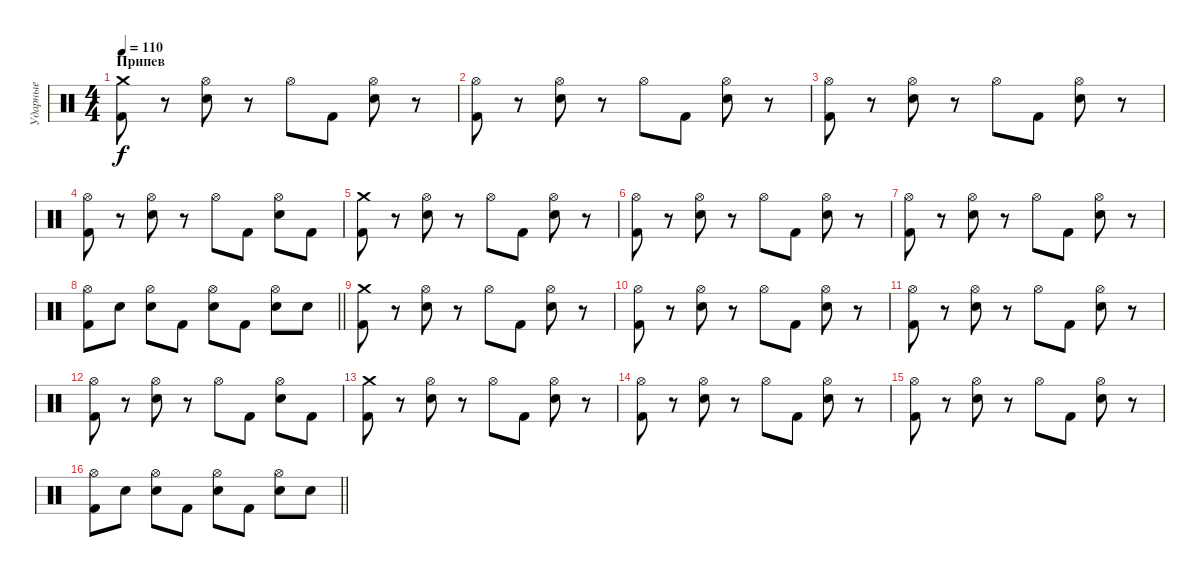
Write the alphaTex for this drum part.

\track ("Ударные" "Ударные") {instrument percussion}
\staff {score}
\articulation defaults
\ts (4 4)
\section ("" "Припев")
\tempo 110
\clef neutral
\ks c
("Crash medium (hit)" "Kick (hit) 2").8{dy f} r.8 ("Hi-Hat (open)" "Snare (hit) 2").8 r.8 "Hi-Hat (open)".8 "Kick (hit) 2".8 ("Hi-Hat (open)" "Snare (hit) 2").8 r.8 |
("Hi-Hat (open)" "Kick (hit) 2").8 r.8 ("Hi-Hat (open)" "Snare (hit) 2").8 r.8 "Hi-Hat (open)".8 "Kick (hit) 2".8 ("Hi-Hat (open)" "Snare (hit) 2").8 r.8 |
("Hi-Hat (open)" "Kick (hit) 2").8 r.8 ("Hi-Hat (open)" "Snare (hit) 2").8 r.8 "Hi-Hat (open)".8 "Kick (hit) 2".8 ("Hi-Hat (open)" "Snare (hit) 2").8 r.8 |
("Hi-Hat (open)" "Kick (hit) 2").8 r.8 ("Hi-Hat (open)" "Snare (hit) 2").8 r.8 "Hi-Hat (open)".8 "Kick (hit) 2".8 ("Hi-Hat (open)" "Snare (hit) 2").8 "Kick (hit) 2".8 |
("Crash medium (hit)" "Kick (hit) 2").8 r.8 ("Hi-Hat (open)" "Snare (hit) 2").8 r.8 "Hi-Hat (open)".8 "Kick (hit) 2".8 ("Hi-Hat (open)" "Snare (hit) 2").8 r.8 |
("Hi-Hat (open)" "Kick (hit) 2").8 r.8 ("Hi-Hat (open)" "Snare (hit) 2").8 r.8 "Hi-Hat (open)".8 "Kick (hit) 2".8 ("Hi-Hat (open)" "Snare (hit) 2").8 r.8 |
("Hi-Hat (open)" "Kick (hit) 2").8 r.8 ("Hi-Hat (open)" "Snare (hit) 2").8 r.8 "Hi-Hat (open)".8 "Kick (hit) 2".8 ("Hi-Hat (open)" "Snare (hit) 2").8 r.8 |
\barLineRight lightlight
("Hi-Hat (open)" "Kick (hit) 2").8 "Snare (hit) 2".8 ("Hi-Hat (open)" "Snare (hit) 2").8 "Kick (hit) 2".8 ("Hi-Hat (open)" "Snare (hit) 2").8 "Kick (hit) 2".8 ("Hi-Hat (open)" "Snare (hit) 2").8 "Snare (hit) 2".8 |
("Crash medium (hit)" "Kick (hit) 2").8 r.8 ("Hi-Hat (open)" "Snare (hit) 2").8 r.8 "Hi-Hat (open)".8 "Kick (hit) 2".8 ("Hi-Hat (open)" "Snare (hit) 2").8 r.8 |
("Hi-Hat (open)" "Kick (hit) 2").8 r.8 ("Hi-Hat (open)" "Snare (hit) 2").8 r.8 "Hi-Hat (open)".8 "Kick (hit) 2".8 ("Hi-Hat (open)" "Snare (hit) 2").8 r.8 |
("Hi-Hat (open)" "Kick (hit) 2").8 r.8 ("Hi-Hat (open)" "Snare (hit) 2").8 r.8 "Hi-Hat (open)".8 "Kick (hit) 2".8 ("Hi-Hat (open)" "Snare (hit) 2").8 r.8 |
("Hi-Hat (open)" "Kick (hit) 2").8 r.8 ("Hi-Hat (open)" "Snare (hit) 2").8 r.8 "Hi-Hat (open)".8 "Kick (hit) 2".8 ("Hi-Hat (open)" "Snare (hit) 2").8 "Kick (hit) 2".8 |
("Crash medium (hit)" "Kick (hit) 2").8 r.8 ("Hi-Hat (open)" "Snare (hit) 2").8 r.8 "Hi-Hat (open)".8 "Kick (hit) 2".8 ("Hi-Hat (open)" "Snare (hit) 2").8 r.8 |
("Hi-Hat (open)" "Kick (hit) 2").8 r.8 ("Hi-Hat (open)" "Snare (hit) 2").8 r.8 "Hi-Hat (open)".8 "Kick (hit) 2".8 ("Hi-Hat (open)" "Snare (hit) 2").8 r.8 |
("Hi-Hat (open)" "Kick (hit) 2").8 r.8 ("Hi-Hat (open)" "Snare (hit) 2").8 r.8 "Hi-Hat (open)".8 "Kick (hit) 2".8 ("Hi-Hat (open)" "Snare (hit) 2").8 r.8 |
\barLineRight lightlight
("Hi-Hat (open)" "Kick (hit) 2").8 "Snare (hit) 2".8 ("Hi-Hat (open)" "Snare (hit) 2").8 "Kick (hit) 2".8 ("Hi-Hat (open)" "Snare (hit) 2").8 "Kick (hit) 2".8 ("Hi-Hat (open)" "Snare (hit) 2").8 "Snare (hit) 2".8
